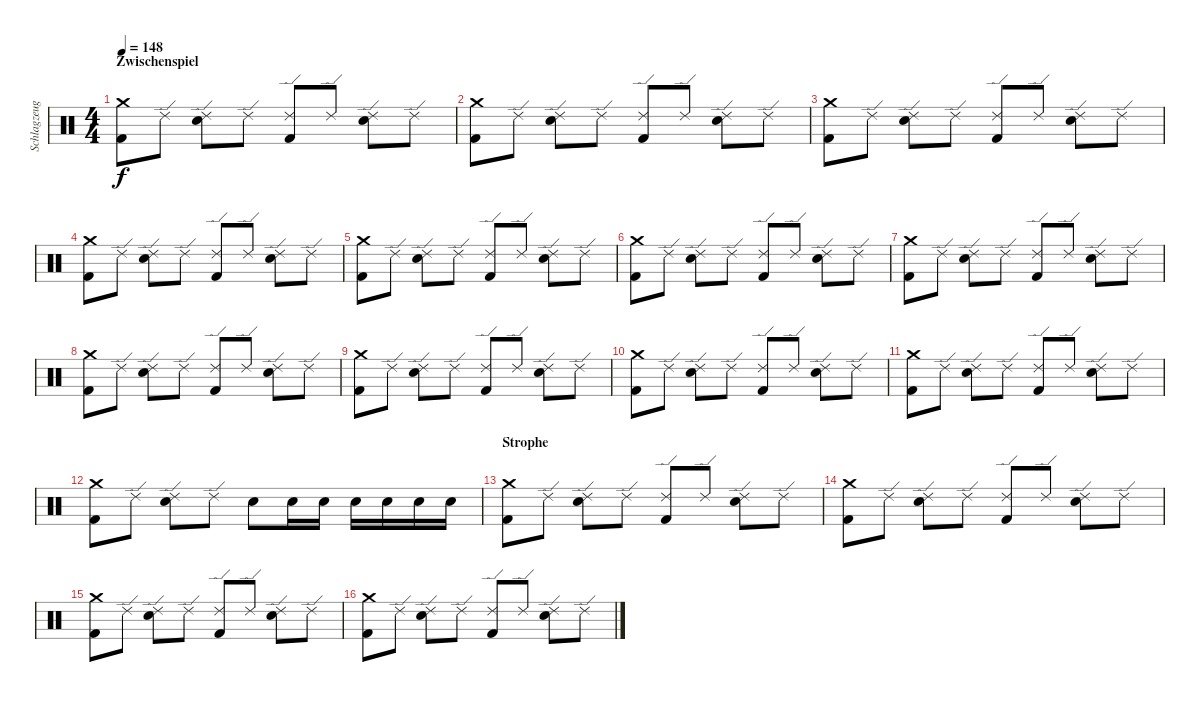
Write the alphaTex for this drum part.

\track ("Schlagzeug" "Schlagzeug") {instrument percussion}
\staff {score}
\articulation defaults
\ts (4 4)
\section ("" "Zwischenspiel")
\tempo 148
\clef neutral
\ks c
("Crash medium (hit)" "Kick (hit) 2").8{dy f} "Ride (edge) 2".8 ("Ride (edge) 2" "Snare (hit) 2").8 "Ride (edge) 2".8 ("Ride (edge) 2" "Kick (hit) 2").8 "Ride (edge) 2".8 ("Ride (edge) 2" "Snare (hit) 2").8 "Ride (edge) 2".8 |
("Crash medium (hit)" "Kick (hit) 2").8 "Ride (edge) 2".8 ("Ride (edge) 2" "Snare (hit) 2").8 "Ride (edge) 2".8 ("Ride (edge) 2" "Kick (hit) 2").8 "Ride (edge) 2".8 ("Ride (edge) 2" "Snare (hit) 2").8 "Ride (edge) 2".8 |
("Crash medium (hit)" "Kick (hit) 2").8 "Ride (edge) 2".8 ("Ride (edge) 2" "Snare (hit) 2").8 "Ride (edge) 2".8 ("Ride (edge) 2" "Kick (hit) 2").8 "Ride (edge) 2".8 ("Ride (edge) 2" "Snare (hit) 2").8 "Ride (edge) 2".8 |
("Crash medium (hit)" "Kick (hit) 2").8 "Ride (edge) 2".8 ("Ride (edge) 2" "Snare (hit) 2").8 "Ride (edge) 2".8 ("Ride (edge) 2" "Kick (hit) 2").8 "Ride (edge) 2".8 ("Ride (edge) 2" "Snare (hit) 2").8 "Ride (edge) 2".8 |
("Crash medium (hit)" "Kick (hit) 2").8 "Ride (edge) 2".8 ("Ride (edge) 2" "Snare (hit) 2").8 "Ride (edge) 2".8 ("Ride (edge) 2" "Kick (hit) 2").8 "Ride (edge) 2".8 ("Ride (edge) 2" "Snare (hit) 2").8 "Ride (edge) 2".8 |
("Crash medium (hit)" "Kick (hit) 2").8 "Ride (edge) 2".8 ("Ride (edge) 2" "Snare (hit) 2").8 "Ride (edge) 2".8 ("Ride (edge) 2" "Kick (hit) 2").8 "Ride (edge) 2".8 ("Ride (edge) 2" "Snare (hit) 2").8 "Ride (edge) 2".8 |
("Crash medium (hit)" "Kick (hit) 2").8 "Ride (edge) 2".8 ("Ride (edge) 2" "Snare (hit) 2").8 "Ride (edge) 2".8 ("Ride (edge) 2" "Kick (hit) 2").8 "Ride (edge) 2".8 ("Ride (edge) 2" "Snare (hit) 2").8 "Ride (edge) 2".8 |
("Crash medium (hit)" "Kick (hit) 2").8 "Ride (edge) 2".8 ("Ride (edge) 2" "Snare (hit) 2").8 "Ride (edge) 2".8 ("Ride (edge) 2" "Kick (hit) 2").8 "Ride (edge) 2".8 ("Ride (edge) 2" "Snare (hit) 2").8 "Ride (edge) 2".8 |
("Crash medium (hit)" "Kick (hit) 2").8 "Ride (edge) 2".8 ("Ride (edge) 2" "Snare (hit) 2").8 "Ride (edge) 2".8 ("Ride (edge) 2" "Kick (hit) 2").8 "Ride (edge) 2".8 ("Ride (edge) 2" "Snare (hit) 2").8 "Ride (edge) 2".8 |
("Crash medium (hit)" "Kick (hit) 2").8 "Ride (edge) 2".8 ("Ride (edge) 2" "Snare (hit) 2").8 "Ride (edge) 2".8 ("Ride (edge) 2" "Kick (hit) 2").8 "Ride (edge) 2".8 ("Ride (edge) 2" "Snare (hit) 2").8 "Ride (edge) 2".8 |
("Crash medium (hit)" "Kick (hit) 2").8 "Ride (edge) 2".8 ("Ride (edge) 2" "Snare (hit) 2").8 "Ride (edge) 2".8 ("Ride (edge) 2" "Kick (hit) 2").8 "Ride (edge) 2".8 ("Ride (edge) 2" "Snare (hit) 2").8 "Ride (edge) 2".8 |
("Crash medium (hit)" "Kick (hit) 2").8 "Ride (edge) 2".8 ("Ride (edge) 2" "Snare (hit) 2").8 "Ride (edge) 2".8 "Snare (hit) 2".8 "Snare (hit) 2".16 "Snare (hit) 2".16 "Snare (hit) 2".16 "Snare (hit) 2".16 "Snare (hit) 2".16 "Snare (hit) 2".16 |
\section ("" "Strophe")
("Crash medium (hit)" "Kick (hit) 2").8 "Ride (edge) 2".8 ("Ride (edge) 2" "Snare (hit) 2").8 "Ride (edge) 2".8 ("Ride (edge) 2" "Kick (hit) 2").8 "Ride (edge) 2".8 ("Ride (edge) 2" "Snare (hit) 2").8 "Ride (edge) 2".8 |
("Crash medium (hit)" "Kick (hit) 2").8 "Ride (edge) 2".8 ("Ride (edge) 2" "Snare (hit) 2").8 "Ride (edge) 2".8 ("Ride (edge) 2" "Kick (hit) 2").8 "Ride (edge) 2".8 ("Ride (edge) 2" "Snare (hit) 2").8 "Ride (edge) 2".8 |
("Crash medium (hit)" "Kick (hit) 2").8 "Ride (edge) 2".8 ("Ride (edge) 2" "Snare (hit) 2").8 "Ride (edge) 2".8 ("Ride (edge) 2" "Kick (hit) 2").8 "Ride (edge) 2".8 ("Ride (edge) 2" "Snare (hit) 2").8 "Ride (edge) 2".8 |
("Crash medium (hit)" "Kick (hit) 2").8 "Ride (edge) 2".8 ("Ride (edge) 2" "Snare (hit) 2").8 "Ride (edge) 2".8 ("Ride (edge) 2" "Kick (hit) 2").8 "Ride (edge) 2".8 ("Ride (edge) 2" "Snare (hit) 2").8 "Ride (edge) 2".8
